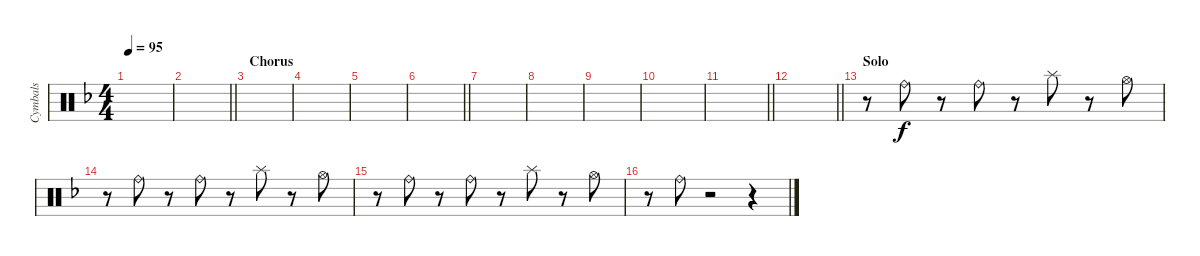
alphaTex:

\track ("Cymbals" "Cymbals") {instrument percussion}
\staff {score}
\articulation defaults
\ts (4 4)
\tempo 95
\clef neutral
\ks dminor
|
\barLineRight lightlight
|
\section ("" "Chorus")
|
|
|
\barLineRight lightlight
|
|
|
|
|
\barLineRight lightlight
|
\barLineRight lightlight
|
\section ("" "Solo")
r.8 "Ride (bell)".8 r.8 "Ride (bell)".8 r.8 "Splash (hit)".8 r.8 "Hi-Hat (open)".8 |
r.8 "Ride (bell)".8 r.8 "Ride (bell)".8 r.8 "Splash (hit)".8 r.8 "Hi-Hat (open)".8 |
r.8 "Ride (bell)".8 r.8 "Ride (bell)".8 r.8 "Splash (hit)".8 r.8 "Hi-Hat (open)".8 |
r.8 "Ride (bell)".8 r.2 r.4
